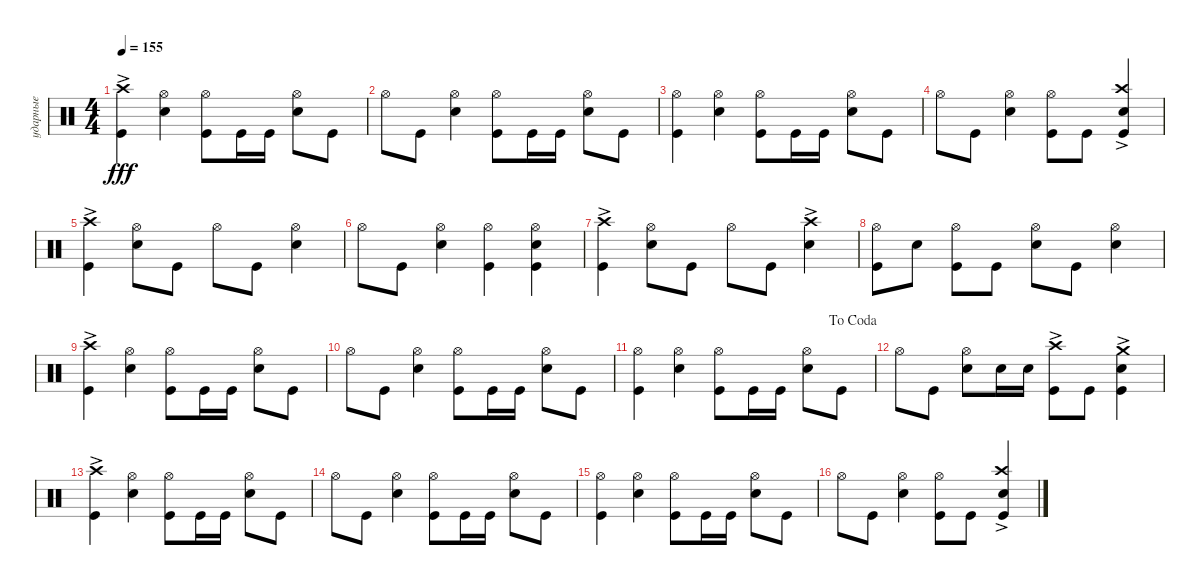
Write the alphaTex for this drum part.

\track ("ударные" "ударные") {instrument percussion}
\staff {score}
\articulation defaults
\ts (4 4)
\tempo 155
\clef neutral
\ks aminor
("Kick (hit)" "Crash high (hit)"{ac}).4{dy fff} ("Snare (hit) 2" "Hi-Hat (open)").4 ("Kick (hit)" "Hi-Hat (open)").8 "Kick (hit)".16 "Kick (hit)".16 ("Snare (hit) 2" "Hi-Hat (open)").8 "Kick (hit)".8 |
"Hi-Hat (open)".8 "Kick (hit)".8 ("Snare (hit) 2" "Hi-Hat (open)").4 ("Kick (hit)" "Hi-Hat (open)").8 "Kick (hit)".16 "Kick (hit)".16 ("Snare (hit) 2" "Hi-Hat (open)").8 "Kick (hit)".8 |
("Kick (hit)" "Hi-Hat (open)").4 ("Snare (hit) 2" "Hi-Hat (open)").4 ("Kick (hit)" "Hi-Hat (open)").8 "Kick (hit)".16 "Kick (hit)".16 ("Snare (hit) 2" "Hi-Hat (open)").8 "Kick (hit)".8 |
"Hi-Hat (open)".8 "Kick (hit)".8 ("Snare (hit) 2" "Hi-Hat (open)").4 ("Kick (hit)" "Hi-Hat (open)").8 "Kick (hit)".8 ("Kick (hit)" "Snare (hit) 2" "Crash high (hit)"{ac}).4 |
("Kick (hit)" "Crash high (hit)"{ac}).4 ("Snare (hit) 2" "Hi-Hat (open)").8 "Kick (hit)".8 "Hi-Hat (open)".8 "Kick (hit)".8 ("Snare (hit) 2" "Hi-Hat (open)").4 |
"Hi-Hat (open)".8 "Kick (hit)".8 ("Snare (hit) 2" "Hi-Hat (open)").4 ("Kick (hit)" "Hi-Hat (open)").4 ("Kick (hit)" "Snare (hit) 2" "Hi-Hat (open)").4 |
("Kick (hit)" "Crash high (hit)"{ac}).4 ("Snare (hit) 2" "Hi-Hat (open)").8 "Kick (hit)".8 "Hi-Hat (open)".8 "Kick (hit)".8 ("Snare (hit) 2" "Crash high (hit)"{ac}).4 |
("Kick (hit)" "Hi-Hat (open)").8 "Snare (hit) 2".8 ("Kick (hit)" "Hi-Hat (open)").8 "Kick (hit)".8 ("Snare (hit) 2" "Hi-Hat (open)").8 "Kick (hit)".8 ("Snare (hit) 2" "Hi-Hat (open)").4 |
("Kick (hit)" "Crash high (hit)"{ac}).4 ("Snare (hit) 2" "Hi-Hat (open)").4 ("Kick (hit)" "Hi-Hat (open)").8 "Kick (hit)".16 "Kick (hit)".16 ("Snare (hit) 2" "Hi-Hat (open)").8 "Kick (hit)".8 |
"Hi-Hat (open)".8 "Kick (hit)".8 ("Snare (hit) 2" "Hi-Hat (open)").4 ("Kick (hit)" "Hi-Hat (open)").8 "Kick (hit)".16 "Kick (hit)".16 ("Snare (hit) 2" "Hi-Hat (open)").8 "Kick (hit)".8 |
\jump dacoda
("Kick (hit)" "Hi-Hat (open)").4 ("Snare (hit) 2" "Hi-Hat (open)").4 ("Kick (hit)" "Hi-Hat (open)").8 "Kick (hit)".16 "Kick (hit)".16 ("Snare (hit) 2" "Hi-Hat (open)").8 "Kick (hit)".8 |
"Hi-Hat (open)".8 "Kick (hit)".8 ("Snare (hit) 2" "Hi-Hat (open)").8 "Snare (hit) 2".16 "Snare (hit) 2".16 ("Kick (hit)" "Crash high (hit)"{ac}).8 "Kick (hit)".8 ("Snare (hit) 2" "Kick (hit)" "Crash medium (hit)"{ac}).4 |
("Kick (hit)" "Crash high (hit)"{ac}).4 ("Snare (hit) 2" "Hi-Hat (open)").4 ("Kick (hit)" "Hi-Hat (open)").8 "Kick (hit)".16 "Kick (hit)".16 ("Snare (hit) 2" "Hi-Hat (open)").8 "Kick (hit)".8 |
"Hi-Hat (open)".8 "Kick (hit)".8 ("Snare (hit) 2" "Hi-Hat (open)").4 ("Kick (hit)" "Hi-Hat (open)").8 "Kick (hit)".16 "Kick (hit)".16 ("Snare (hit) 2" "Hi-Hat (open)").8 "Kick (hit)".8 |
("Kick (hit)" "Hi-Hat (open)").4 ("Snare (hit) 2" "Hi-Hat (open)").4 ("Kick (hit)" "Hi-Hat (open)").8 "Kick (hit)".16 "Kick (hit)".16 ("Snare (hit) 2" "Hi-Hat (open)").8 "Kick (hit)".8 |
"Hi-Hat (open)".8 "Kick (hit)".8 ("Snare (hit) 2" "Hi-Hat (open)").4 ("Kick (hit)" "Hi-Hat (open)").8 "Kick (hit)".8 ("Kick (hit)" "Snare (hit) 2" "Crash high (hit)"{ac}).4
